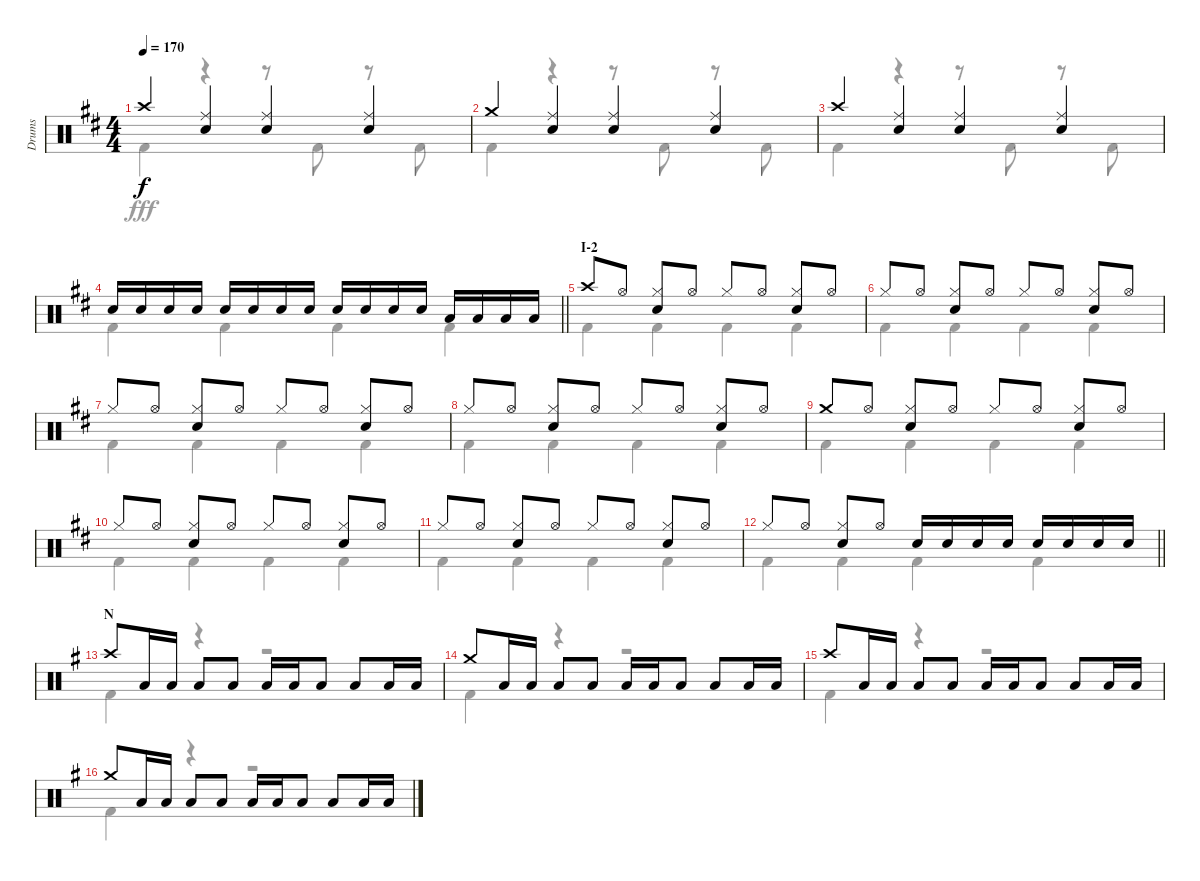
\track ("Drums" "Drums") {instrument percussion}
\staff {score}
\articulation defaults
\voice
\ts (4 4)
\tempo 170
\clef neutral
\ks d "Crash high (hit)".4{dy f}
("Ride (middle)" "Snare (hit) 2").4 ("Ride (middle)" "Snare (hit) 2").4 ("Ride (middle)" "Snare (hit) 2").4 |
"Crash medium (hit)".4 ("Ride (middle)" "Snare (hit) 2").4 ("Ride (middle)" "Snare (hit) 2").4 ("Ride (middle)" "Snare (hit) 2").4 |
"Crash high (hit)".4 ("Ride (middle)" "Snare (hit) 2").4 ("Ride (middle)" "Snare (hit) 2").4 ("Ride (middle)" "Snare (hit) 2").4 |
\barLineRight lightlight "Snare (hit) 2".16 "Snare (hit) 2".16 "Snare (hit) 2".16 "Snare (hit) 2".16 "Snare (hit) 2".16 "Snare (hit) 2".16 "Snare (hit) 2".16 "Snare (hit) 2".16 "Snare (hit) 2".16 "Snare (hit) 2".16 "Snare (hit) 2".16 "Snare (hit) 2".16 "Low Tom (hit)".16 "Low Tom (hit)".16 "Low Tom (hit)".16 "Low Tom (hit)".16
|
\section ("" "I-2")
"Crash high (hit)".8 "Hi-Hat (open)".8 ("Hi-Hat (closed)" "Snare (hit) 2").8 "Hi-Hat (open)".8 "Hi-Hat (closed)".8 "Hi-Hat (open)".8 ("Hi-Hat (closed)" "Snare (hit) 2").8 "Hi-Hat (open)".8 |
"Hi-Hat (closed)".8 "Hi-Hat (open)".8 ("Hi-Hat (closed)" "Snare (hit) 2").8 "Hi-Hat (open)".8 "Hi-Hat (closed)".8 "Hi-Hat (open)".8 ("Hi-Hat (closed)" "Snare (hit) 2").8 "Hi-Hat (open)".8 |
"Hi-Hat (closed)".8 "Hi-Hat (open)".8 ("Hi-Hat (closed)" "Snare (hit) 2").8 "Hi-Hat (open)".8 "Hi-Hat (closed)".8 "Hi-Hat (open)".8 ("Hi-Hat (closed)" "Snare (hit) 2").8 "Hi-Hat (open)".8 |
"Hi-Hat (closed)".8 "Hi-Hat (open)".8 ("Hi-Hat (closed)" "Snare (hit) 2").8 "Hi-Hat (open)".8 "Hi-Hat (closed)".8 "Hi-Hat (open)".8 ("Hi-Hat (closed)" "Snare (hit) 2").8 "Hi-Hat (open)".8 |
"Crash medium (hit)".8 "Hi-Hat (open)".8 ("Hi-Hat (closed)" "Snare (hit) 2").8 "Hi-Hat (open)".8 "Hi-Hat (closed)".8 "Hi-Hat (open)".8 ("Hi-Hat (closed)" "Snare (hit) 2").8 "Hi-Hat (open)".8 |
"Hi-Hat (closed)".8 "Hi-Hat (open)".8 ("Hi-Hat (closed)" "Snare (hit) 2").8 "Hi-Hat (open)".8 "Hi-Hat (closed)".8 "Hi-Hat (open)".8 ("Hi-Hat (closed)" "Snare (hit) 2").8 "Hi-Hat (open)".8 |
"Hi-Hat (closed)".8 "Hi-Hat (open)".8 ("Hi-Hat (closed)" "Snare (hit) 2").8 "Hi-Hat (open)".8 "Hi-Hat (closed)".8 "Hi-Hat (open)".8 ("Hi-Hat (closed)" "Snare (hit) 2").8 "Hi-Hat (open)".8 |
\barLineRight lightlight "Hi-Hat (closed)".8 "Hi-Hat (open)".8
("Hi-Hat (closed)" "Snare (hit) 2").8 "Hi-Hat (open)".8 "Snare (hit) 2".16 "Snare (hit) 2".16 "Snare (hit) 2".16 "Snare (hit) 2".16 "Snare (hit) 2".16 "Snare (hit) 2".16 "Snare (hit) 2".16 "Snare (hit) 2".16 |
\section ("" "N")
\ks g "Crash high (hit)".8 "Low Tom (hit)".16 "Low Tom (hit)".16 "Low Tom (hit)".8 "Low Tom (hit)".8 "Low Tom (hit)".16 "Low Tom (hit)".16 "Low Tom (hit)".8 "Low Tom (hit)".8 "Low Tom (hit)".16 "Low Tom (hit)".16
|
"Crash medium (hit)".8 "Low Tom (hit)".16 "Low Tom (hit)".16 "Low Tom (hit)".8 "Low Tom (hit)".8 "Low Tom (hit)".16 "Low Tom (hit)".16 "Low Tom (hit)".8 "Low Tom (hit)".8 "Low Tom (hit)".16 "Low Tom (hit)".16 |
"Crash high (hit)".8 "Low Tom (hit)".16 "Low Tom (hit)".16 "Low Tom (hit)".8 "Low Tom (hit)".8 "Low Tom (hit)".16 "Low Tom (hit)".16 "Low Tom (hit)".8 "Low Tom (hit)".8 "Low Tom (hit)".16 "Low Tom (hit)".16 |
"Crash medium (hit)".8 "Low Tom (hit)".16 "Low Tom (hit)".16 "Low Tom (hit)".8 "Low Tom (hit)".8 "Low Tom (hit)".16 "Low Tom (hit)".16 "Low Tom (hit)".8 "Low Tom (hit)".8 "Low Tom (hit)".16 "Low Tom (hit)".16
\voice
\clef neutral
\ottava regular
\simile none
\ks d "Kick (hit) 2".4{dy fff}
r.4 r.8 "Kick (hit) 2".8 r.8 "Kick (hit) 2".8 |
"Kick (hit) 2".4 r.4 r.8 "Kick (hit) 2".8 r.8 "Kick (hit) 2".8 |
"Kick (hit) 2".4 r.4 r.8 "Kick (hit) 2".8 r.8 "Kick (hit) 2".8 |
\barLineRight lightlight "Kick (hit) 2".4 "Kick (hit) 2".4 "Kick (hit) 2".4 "Kick (hit) 2".4
|
"Kick (hit) 2".4 "Kick (hit) 2".4 "Kick (hit) 2".4 "Kick (hit) 2".4 |
"Kick (hit) 2".4 "Kick (hit) 2".4 "Kick (hit) 2".4 "Kick (hit) 2".4 |
"Kick (hit) 2".4 "Kick (hit) 2".4 "Kick (hit) 2".4 "Kick (hit) 2".4 |
"Kick (hit) 2".4 "Kick (hit) 2".4 "Kick (hit) 2".4 "Kick (hit) 2".4 |
"Kick (hit) 2".4 "Kick (hit) 2".4 "Kick (hit) 2".4 "Kick (hit) 2".4 |
"Kick (hit) 2".4 "Kick (hit) 2".4 "Kick (hit) 2".4 "Kick (hit) 2".4 |
"Kick (hit) 2".4 "Kick (hit) 2".4 "Kick (hit) 2".4 "Kick (hit) 2".4 |
\barLineRight lightlight "Kick (hit) 2".4 "Kick (hit) 2".4 "Kick (hit) 2".4 "Kick (hit) 2".4
|
\ks g "Kick (hit) 2".4
r.4 r.2 |
"Kick (hit) 2".4 r.4 r.2 |
"Kick (hit) 2".4 r.4 r.2 |
"Kick (hit) 2".4 r.4 r.2
